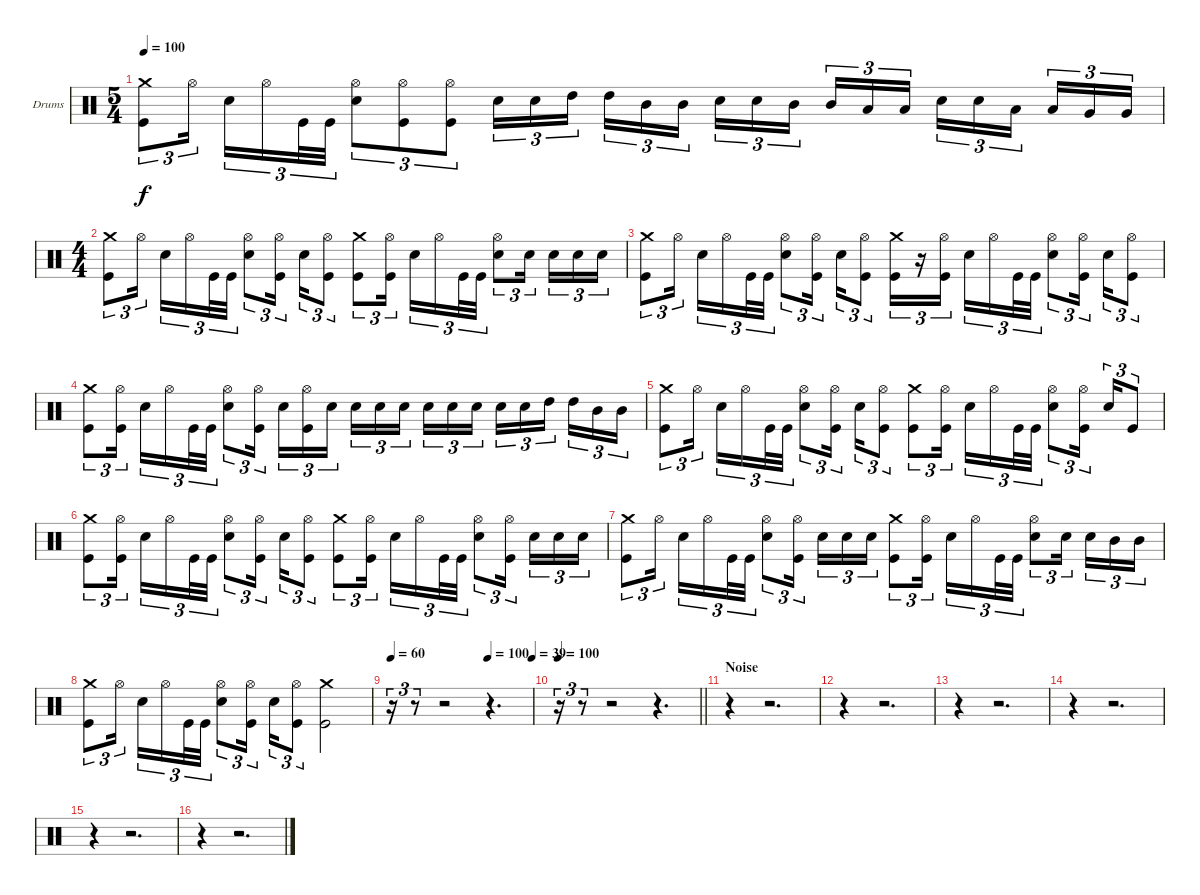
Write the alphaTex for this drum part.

\bracketExtendMode groupsimilarinstruments
\firstSystemTrackNameOrientation horizontal
\otherSystemsTrackNameOrientation horizontal
\track ("drums (Anton Zulganov)" "Drums") {instrument percussion}
\staff {score}
\articulation defaults
\ts (5 4)
\beaming (8 6 4)
\tempo 100
\clef neutral
\ks aminor
("Kick (hit)" "Crash medium (hit)").8{tu (3 2) dy f} "Hi-Hat (open)".16{tu (3 2)} "Snare (hit) 2".16{tu (3 2)} "Hi-Hat (open)".16{tu (3 2)} "Kick (hit)".32{tu (3 2)} "Kick (hit)".32{tu (3 2)} ("Snare (hit) 2" "Hi-Hat (open)").8{tu (3 2)} ("Kick (hit)" "Hi-Hat (open)").8{tu (3 2)} ("Kick (hit)" "Hi-Hat (open)").8{tu (3 2)} "Snare (hit) 2".16{tu (3 2)} "Snare (hit) 2".16{tu (3 2)} "High Tom (hit)".16{tu (3 2)} "High Tom (hit)".16{tu (3 2)} "Mid Tom (hit)".16{tu (3 2)} "Mid Tom (hit)".16{tu (3 2)} "Snare (hit) 2".16{tu (3 2)} "Snare (hit) 2".16{tu (3 2)} "Mid Tom (hit)".16{tu (3 2)} "Mid Tom (hit)".16{tu (3 2)} "Low Tom (hit)".16{tu (3 2)} "Low Tom (hit)".16{tu (3 2)} "Snare (hit) 2".16{tu (3 2)} "Snare (hit) 2".16{tu (3 2)} "Low Tom (hit)".16{tu (3 2)} "Low Tom (hit)".16{tu (3 2)} "Very Low Tom (hit)".16{tu (3 2)} "Very Low Tom (hit)".16{tu (3 2)} |
\ts (4 4)
\beaming (8 2 2 2 2)
("Kick (hit)" "Crash medium (hit)").8{tu (3 2)} "Hi-Hat (open)".16{tu (3 2)} "Snare (hit) 2".16{tu (3 2)} "Hi-Hat (open)".16{tu (3 2)} "Kick (hit)".32{tu (3 2)} "Kick (hit)".32{tu (3 2)} ("Snare (hit) 2" "Hi-Hat (open)").8{tu (3 2)} ("Kick (hit)" "Hi-Hat (open)").16{tu (3 2)} "Snare (hit) 2".16{tu (3 2)} ("Kick (hit)" "Hi-Hat (open)").8{tu (3 2)} ("Kick (hit)" "Crash medium (hit)").8{tu (3 2)} ("Hi-Hat (open)" "Kick (hit)").16{tu (3 2)} "Snare (hit) 2".16{tu (3 2)} "Hi-Hat (open)".16{tu (3 2)} "Kick (hit)".32{tu (3 2)} "Kick (hit)".32{tu (3 2)} ("Snare (hit) 2" "Hi-Hat (open)").8{tu (3 2)} "Snare (hit) 2".16{tu (3 2)} "Snare (hit) 2".16{tu (3 2)} "Snare (hit) 2".16{tu (3 2)} "Snare (hit) 2".16{tu (3 2)} |
("Kick (hit)" "Crash medium (hit)").8{tu (3 2)} "Hi-Hat (open)".16{tu (3 2)} "Snare (hit) 2".16{tu (3 2)} "Hi-Hat (open)".16{tu (3 2)} "Kick (hit)".32{tu (3 2)} "Kick (hit)".32{tu (3 2)} ("Snare (hit) 2" "Hi-Hat (open)").8{tu (3 2)} ("Kick (hit)" "Hi-Hat (open)").16{tu (3 2)} "Snare (hit) 2".16{tu (3 2)} ("Kick (hit)" "Hi-Hat (open)").8{tu (3 2)} ("Kick (hit)" "Crash medium (hit)").16{tu (3 2)} r.16{tu (3 2)} ("Kick (hit)" "Hi-Hat (open)").16{tu (3 2)} "Snare (hit) 2".16{tu (3 2)} "Hi-Hat (open)".16{tu (3 2)} "Kick (hit)".32{tu (3 2)} "Kick (hit)".32{tu (3 2)} ("Snare (hit) 2" "Hi-Hat (open)").8{tu (3 2)} ("Kick (hit)" "Hi-Hat (open)").16{tu (3 2)} "Snare (hit) 2".16{tu (3 2)} ("Kick (hit)" "Hi-Hat (open)").8{tu (3 2)} |
("Kick (hit)" "Crash medium (hit)").8{tu (3 2)} ("Hi-Hat (open)" "Kick (hit)").16{tu (3 2)} "Snare (hit) 2".16{tu (3 2)} "Hi-Hat (open)".16{tu (3 2)} "Kick (hit)".32{tu (3 2)} "Kick (hit)".32{tu (3 2)} ("Snare (hit) 2" "Hi-Hat (open)").8{tu (3 2)} ("Kick (hit)" "Hi-Hat (open)").16{tu (3 2)} "Snare (hit) 2".16{tu (3 2)} ("Kick (hit)" "Hi-Hat (open)").16{tu (3 2)} "Snare (hit) 2".16{tu (3 2)} "Snare (hit) 2".16{tu (3 2)} "Snare (hit) 2".16{tu (3 2)} "Snare (hit) 2".16{tu (3 2)} "Snare (hit) 2".16{tu (3 2)} "Snare (hit) 2".16{tu (3 2)} "Snare (hit) 2".16{tu (3 2)} "Snare (hit) 2".16{tu (3 2)} "Snare (hit) 2".16{tu (3 2)} "High Tom (hit)".16{tu (3 2)} "High Tom (hit)".16{tu (3 2)} "Mid Tom (hit)".16{tu (3 2)} "Mid Tom (hit)".16{tu (3 2)} |
("Kick (hit)" "Crash medium (hit)").8{tu (3 2)} "Hi-Hat (open)".16{tu (3 2)} "Snare (hit) 2".16{tu (3 2)} "Hi-Hat (open)".16{tu (3 2)} "Kick (hit)".32{tu (3 2)} "Kick (hit)".32{tu (3 2)} ("Snare (hit) 2" "Hi-Hat (open)").8{tu (3 2)} ("Kick (hit)" "Hi-Hat (open)").16{tu (3 2)} "Snare (hit) 2".16{tu (3 2)} ("Kick (hit)" "Hi-Hat (open)").8{tu (3 2)} ("Kick (hit)" "Crash medium (hit)").8{tu (3 2)} ("Hi-Hat (open)" "Kick (hit)").16{tu (3 2)} "Snare (hit) 2".16{tu (3 2)} "Hi-Hat (open)".16{tu (3 2)} "Kick (hit)".32{tu (3 2)} "Kick (hit)".32{tu (3 2)} ("Snare (hit) 2" "Hi-Hat (open)").8{tu (3 2)} ("Kick (hit)" "Hi-Hat (open)").16{tu (3 2)} "Snare (hit) 2".16{tu (3 2)} "Kick (hit)".8{tu (3 2)} |
("Kick (hit)" "Crash medium (hit)").8{tu (3 2)} ("Hi-Hat (open)" "Kick (hit)").16{tu (3 2)} "Snare (hit) 2".16{tu (3 2)} "Hi-Hat (open)".16{tu (3 2)} "Kick (hit)".32{tu (3 2)} "Kick (hit)".32{tu (3 2)} ("Snare (hit) 2" "Hi-Hat (open)").8{tu (3 2)} ("Kick (hit)" "Hi-Hat (open)").16{tu (3 2)} "Snare (hit) 2".16{tu (3 2)} ("Kick (hit)" "Hi-Hat (open)").8{tu (3 2)} ("Kick (hit)" "Crash medium (hit)").8{tu (3 2)} ("Hi-Hat (open)" "Kick (hit)").16{tu (3 2)} "Snare (hit) 2".16{tu (3 2)} "Hi-Hat (open)".16{tu (3 2)} "Kick (hit)".32{tu (3 2)} "Kick (hit)".32{tu (3 2)} ("Snare (hit) 2" "Hi-Hat (open)").8{tu (3 2)} ("Kick (hit)" "Hi-Hat (open)").16{tu (3 2)} "Snare (hit) 2".16{tu (3 2)} "Snare (hit) 2".16{tu (3 2)} "Snare (hit) 2".16{tu (3 2)} |
("Kick (hit)" "Crash medium (hit)").8{tu (3 2)} "Hi-Hat (open)".16{tu (3 2)} "Snare (hit) 2".16{tu (3 2)} "Hi-Hat (open)".16{tu (3 2)} "Kick (hit)".32{tu (3 2)} "Kick (hit)".32{tu (3 2)} ("Snare (hit) 2" "Hi-Hat (open)").8{tu (3 2)} ("Kick (hit)" "Hi-Hat (open)").16{tu (3 2)} "Snare (hit) 2".16{tu (3 2)} "Snare (hit) 2".16{tu (3 2)} "Snare (hit) 2".16{tu (3 2)} ("Kick (hit)" "Crash medium (hit)").8{tu (3 2)} ("Hi-Hat (open)" "Kick (hit)").16{tu (3 2)} "Snare (hit) 2".16{tu (3 2)} "Hi-Hat (open)".16{tu (3 2)} "Kick (hit)".32{tu (3 2)} "Kick (hit)".32{tu (3 2)} ("Snare (hit) 2" "Hi-Hat (open)").8{tu (3 2)} "Snare (hit) 2".16{tu (3 2)} "Snare (hit) 2".16{tu (3 2)} "Mid Tom (hit)".16{tu (3 2)} "Mid Tom (hit)".16{tu (3 2)} |
("Kick (hit)" "Crash medium (hit)").8{tu (3 2)} "Hi-Hat (open)".16{tu (3 2)} "Snare (hit) 2".16{tu (3 2)} "Hi-Hat (open)".16{tu (3 2)} "Kick (hit)".32{tu (3 2)} "Kick (hit)".32{tu (3 2)} ("Snare (hit) 2" "Hi-Hat (open)").8{tu (3 2)} ("Kick (hit)" "Hi-Hat (open)").16{tu (3 2)} "Snare (hit) 2".16{tu (3 2)} ("Kick (hit)" "Hi-Hat (open)").8{tu (3 2)} ("Kick (hit)" "Crash medium (hit)").2 |
\tempo 60
\tempo (100 0.6875)
\tempo (39 1)
r.16{tu (3 2)} r.8{tu (3 2)} r.2 r.4{d} |
\tempo 100
\barLineRight lightlight
r.16{tu (3 2)} r.8{tu (3 2)} r.2 r.4{d} |
\section ("" "Noise")
r.4 r.2{d} |
r.4 r.2{d} |
r.4 r.2{d} |
r.4 r.2{d} |
r.4 r.2{d} |
r.4 r.2{d}
